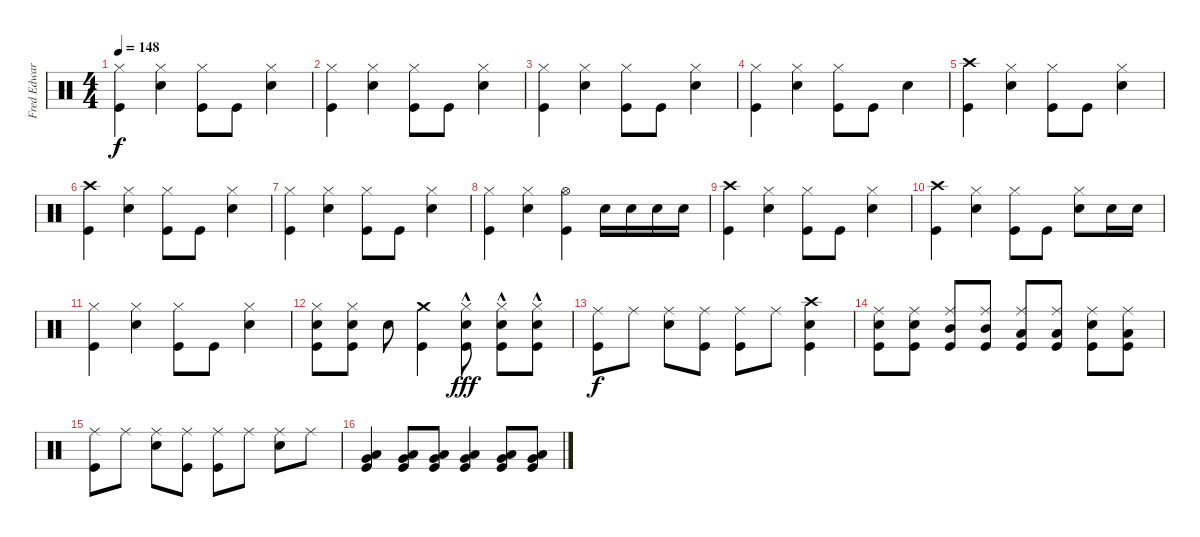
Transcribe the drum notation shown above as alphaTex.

\track ("Fred Edwards Drums" "Fred Edwar") {instrument percussion}
\staff {score}
\articulation defaults
\ts (4 4)
\tempo 148
\clef neutral
\ks c
("Hi-Hat (closed)" "Kick (hit)").4{dy f} ("Hi-Hat (closed)" "Snare (hit) 2").4 ("Hi-Hat (closed)" "Kick (hit)").8 "Kick (hit)".8 ("Hi-Hat (closed)" "Snare (hit) 2").4 |
("Hi-Hat (closed)" "Kick (hit)").4 ("Hi-Hat (closed)" "Snare (hit) 2").4 ("Hi-Hat (closed)" "Kick (hit)").8 "Kick (hit)".8 ("Hi-Hat (closed)" "Snare (hit) 2").4 |
("Hi-Hat (closed)" "Kick (hit)").4 ("Hi-Hat (closed)" "Snare (hit) 2").4 ("Hi-Hat (closed)" "Kick (hit)").8 "Kick (hit)".8 ("Hi-Hat (closed)" "Snare (hit) 2").4 |
("Hi-Hat (closed)" "Kick (hit)").4 ("Hi-Hat (closed)" "Snare (hit) 2").4 ("Hi-Hat (closed)" "Kick (hit)").8 "Kick (hit)".8 "Snare (hit) 2".4 |
("Crash high (hit)" "Kick (hit)").4 ("Hi-Hat (closed)" "Snare (hit) 2").4 ("Hi-Hat (closed)" "Kick (hit)").8 "Kick (hit)".8 ("Hi-Hat (closed)" "Snare (hit) 2").4 |
("Crash high (hit)" "Kick (hit)").4 ("Hi-Hat (closed)" "Snare (hit) 2").4 ("Hi-Hat (closed)" "Kick (hit)").8 "Kick (hit)".8 ("Hi-Hat (closed)" "Snare (hit) 2").4 |
("Hi-Hat (closed)" "Kick (hit)").4 ("Hi-Hat (closed)" "Snare (hit) 2").4 ("Hi-Hat (closed)" "Kick (hit)").8 "Kick (hit)".8 ("Hi-Hat (closed)" "Snare (hit) 2").4 |
("Hi-Hat (closed)" "Kick (hit)").4 ("Hi-Hat (closed)" "Snare (hit) 2").4 ("Hi-Hat (open)" "Kick (hit)").4 "Snare (hit) 2".16 "Snare (hit) 2".16 "Snare (hit) 2".16 "Snare (hit) 2".16 |
("Crash high (hit)" "Kick (hit)").4 ("Hi-Hat (closed)" "Snare (hit) 2").4 ("Hi-Hat (closed)" "Kick (hit)").8 "Kick (hit)".8 ("Hi-Hat (closed)" "Snare (hit) 2").4 |
("Crash high (hit)" "Kick (hit)").4 ("Hi-Hat (closed)" "Snare (hit) 2").4 ("Hi-Hat (closed)" "Kick (hit)").8 "Kick (hit)".8 ("Hi-Hat (closed)" "Snare (hit) 2").8 "Snare (hit) 2".16 "Snare (hit) 2".16 |
("Hi-Hat (closed)" "Kick (hit)").4 ("Hi-Hat (closed)" "Snare (hit) 2").4 ("Hi-Hat (closed)" "Kick (hit)").8 "Kick (hit)".8 ("Hi-Hat (closed)" "Snare (hit) 2").4 |
("Hi-Hat (closed)" "Snare (hit) 2" "Kick (hit)").8 ("Hi-Hat (closed)" "Snare (hit) 2" "Kick (hit)").8 "Snare (hit) 2".8 ("Crash medium (hit)" "Kick (hit)").4 ("Hi-Hat (closed)"{hac} "Snare (hit) 2" "Kick (hit)").8{dy fff} ("Hi-Hat (closed)"{hac} "Snare (hit) 2" "Kick (hit)").8 ("Hi-Hat (closed)"{hac} "Snare (hit) 2" "Kick (hit)").8 |
("Ride (middle)" "Kick (hit)").8{dy f} "Ride (middle)".8 ("Ride (middle)" "Snare (hit) 2").8 ("Ride (middle)" "Kick (hit)").8 ("Ride (middle)" "Kick (hit)").8 "Ride (middle)".8 ("Crash high (hit)" "Snare (hit) 2" "Kick (hit)").4 |
("Ride (middle)" "Snare (hit) 2" "Kick (hit)").8 ("Ride (middle)" "Snare (hit) 2" "Kick (hit)").8 ("Ride (middle)" "Mid Tom (hit)" "Kick (hit)").8 ("Ride (middle)" "Mid Tom (hit)" "Kick (hit)").8 ("Ride (middle)" "Low Tom (hit)" "Kick (hit)").8 ("Ride (middle)" "Low Tom (hit)" "Kick (hit)").8 ("Ride (middle)" "Snare (hit) 2" "Kick (hit)").8 ("Ride (middle)" "Low Tom (hit)" "Kick (hit)").8 |
("Ride (middle)" "Kick (hit)").8 "Ride (middle)".8 ("Ride (middle)" "Snare (hit) 2").8 ("Ride (middle)" "Kick (hit)").8 ("Ride (middle)" "Kick (hit)").8 "Ride (middle)".8 ("Ride (middle)" "Snare (hit) 2").8 "Ride (middle)".8 |
("Very Low Tom (hit)" "Low Floor Tom (hit)" "Kick (hit)").4 ("Very Low Tom (hit)" "Low Floor Tom (hit)" "Kick (hit)").8 ("Very Low Tom (hit)" "Low Floor Tom (hit)" "Kick (hit)").8 ("Very Low Tom (hit)" "Low Floor Tom (hit)" "Kick (hit)").4 ("Very Low Tom (hit)" "Low Floor Tom (hit)" "Kick (hit)").8 ("Very Low Tom (hit)" "Low Floor Tom (hit)" "Kick (hit)").8
